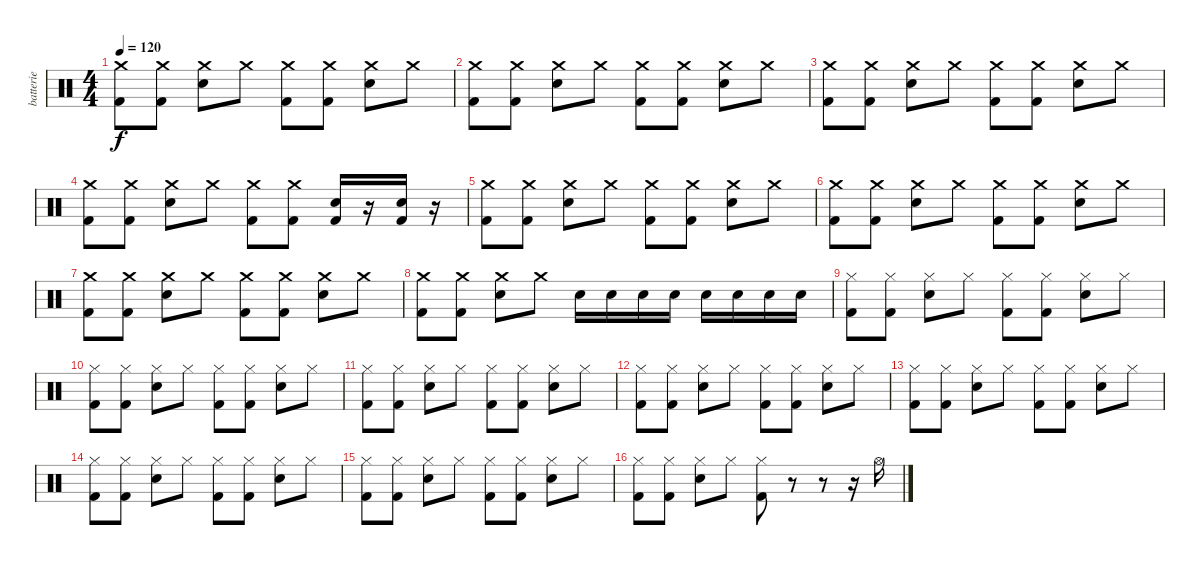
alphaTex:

\track ("batterie" "batterie") {instrument percussion}
\staff {score}
\articulation defaults
\ts (4 4)
\tempo 120
\clef neutral
\ks c
("Crash medium (hit)" "Kick (hit) 2").8{dy f} ("Crash medium (hit)" "Kick (hit) 2").8 ("Crash medium (hit)" "Electric Snare (hit)").8 "Crash medium (hit)".8 ("Crash medium (hit)" "Kick (hit) 2").8 ("Crash medium (hit)" "Kick (hit) 2").8 ("Crash medium (hit)" "Electric Snare (hit)").8 "Crash medium (hit)".8 |
("Crash medium (hit)" "Kick (hit) 2").8 ("Crash medium (hit)" "Kick (hit) 2").8 ("Crash medium (hit)" "Electric Snare (hit)").8 "Crash medium (hit)".8 ("Crash medium (hit)" "Kick (hit) 2").8 ("Crash medium (hit)" "Kick (hit) 2").8 ("Crash medium (hit)" "Electric Snare (hit)").8 "Crash medium (hit)".8 |
("Crash medium (hit)" "Kick (hit) 2").8 ("Crash medium (hit)" "Kick (hit) 2").8 ("Crash medium (hit)" "Electric Snare (hit)").8 "Crash medium (hit)".8 ("Crash medium (hit)" "Kick (hit) 2").8 ("Crash medium (hit)" "Kick (hit) 2").8 ("Crash medium (hit)" "Electric Snare (hit)").8 "Crash medium (hit)".8 |
("Crash medium (hit)" "Kick (hit) 2").8 ("Crash medium (hit)" "Kick (hit) 2").8 ("Crash medium (hit)" "Electric Snare (hit)").8 "Crash medium (hit)".8 ("Crash medium (hit)" "Kick (hit) 2").8 ("Crash medium (hit)" "Kick (hit) 2").8 ("Kick (hit) 2" "Electric Snare (hit)").16 r.16 ("Kick (hit) 2" "Electric Snare (hit)").16 r.16 |
("Crash medium (hit)" "Kick (hit) 2").8 ("Crash medium (hit)" "Kick (hit) 2").8 ("Crash medium (hit)" "Electric Snare (hit)").8 "Crash medium (hit)".8 ("Crash medium (hit)" "Kick (hit) 2").8 ("Crash medium (hit)" "Kick (hit) 2").8 ("Crash medium (hit)" "Electric Snare (hit)").8 "Crash medium (hit)".8 |
("Crash medium (hit)" "Kick (hit) 2").8 ("Crash medium (hit)" "Kick (hit) 2").8 ("Crash medium (hit)" "Electric Snare (hit)").8 "Crash medium (hit)".8 ("Crash medium (hit)" "Kick (hit) 2").8 ("Crash medium (hit)" "Kick (hit) 2").8 ("Crash medium (hit)" "Electric Snare (hit)").8 "Crash medium (hit)".8 |
("Crash medium (hit)" "Kick (hit) 2").8 ("Crash medium (hit)" "Kick (hit) 2").8 ("Crash medium (hit)" "Electric Snare (hit)").8 "Crash medium (hit)".8 ("Crash medium (hit)" "Kick (hit) 2").8 ("Crash medium (hit)" "Kick (hit) 2").8 ("Crash medium (hit)" "Electric Snare (hit)").8 "Crash medium (hit)".8 |
("Crash medium (hit)" "Kick (hit) 2").8 ("Crash medium (hit)" "Kick (hit) 2").8 ("Crash medium (hit)" "Electric Snare (hit)").8 "Crash medium (hit)".8 "Electric Snare (hit)".16 "Electric Snare (hit)".16 "Electric Snare (hit)".16 "Electric Snare (hit)".16 "Electric Snare (hit)".16 "Electric Snare (hit)".16 "Electric Snare (hit)".16 "Electric Snare (hit)".16 |
("Hi-Hat (closed)" "Kick (hit) 2").8 ("Hi-Hat (closed)" "Kick (hit) 2").8 ("Hi-Hat (closed)" "Electric Snare (hit)").8 "Hi-Hat (closed)".8 ("Hi-Hat (closed)" "Kick (hit) 2").8 ("Hi-Hat (closed)" "Kick (hit) 2").8 ("Hi-Hat (closed)" "Electric Snare (hit)").8 "Hi-Hat (closed)".8 |
("Hi-Hat (closed)" "Kick (hit) 2").8 ("Hi-Hat (closed)" "Kick (hit) 2").8 ("Hi-Hat (closed)" "Electric Snare (hit)").8 "Hi-Hat (closed)".8 ("Hi-Hat (closed)" "Kick (hit) 2").8 ("Hi-Hat (closed)" "Kick (hit) 2").8 ("Hi-Hat (closed)" "Electric Snare (hit)").8 "Hi-Hat (closed)".8 |
("Hi-Hat (closed)" "Kick (hit) 2").8 ("Hi-Hat (closed)" "Kick (hit) 2").8 ("Hi-Hat (closed)" "Electric Snare (hit)").8 "Hi-Hat (closed)".8 ("Hi-Hat (closed)" "Kick (hit) 2").8 ("Hi-Hat (closed)" "Kick (hit) 2").8 ("Hi-Hat (closed)" "Electric Snare (hit)").8 "Hi-Hat (closed)".8 |
("Hi-Hat (closed)" "Kick (hit) 2").8 ("Hi-Hat (closed)" "Kick (hit) 2").8 ("Hi-Hat (closed)" "Electric Snare (hit)").8 "Hi-Hat (closed)".8 ("Hi-Hat (closed)" "Kick (hit) 2").8 ("Hi-Hat (closed)" "Kick (hit) 2").8 ("Hi-Hat (closed)" "Electric Snare (hit)").8 "Hi-Hat (closed)".8 |
("Hi-Hat (closed)" "Kick (hit) 2").8 ("Hi-Hat (closed)" "Kick (hit) 2").8 ("Hi-Hat (closed)" "Electric Snare (hit)").8 "Hi-Hat (closed)".8 ("Hi-Hat (closed)" "Kick (hit) 2").8 ("Hi-Hat (closed)" "Kick (hit) 2").8 ("Hi-Hat (closed)" "Electric Snare (hit)").8 "Hi-Hat (closed)".8 |
("Hi-Hat (closed)" "Kick (hit) 2").8 ("Hi-Hat (closed)" "Kick (hit) 2").8 ("Hi-Hat (closed)" "Electric Snare (hit)").8 "Hi-Hat (closed)".8 ("Hi-Hat (closed)" "Kick (hit) 2").8 ("Hi-Hat (closed)" "Kick (hit) 2").8 ("Hi-Hat (closed)" "Electric Snare (hit)").8 "Hi-Hat (closed)".8 |
("Hi-Hat (closed)" "Kick (hit) 2").8 ("Hi-Hat (closed)" "Kick (hit) 2").8 ("Hi-Hat (closed)" "Electric Snare (hit)").8 "Hi-Hat (closed)".8 ("Hi-Hat (closed)" "Kick (hit) 2").8 ("Hi-Hat (closed)" "Kick (hit) 2").8 ("Hi-Hat (closed)" "Electric Snare (hit)").8 "Hi-Hat (closed)".8 |
("Hi-Hat (closed)" "Kick (hit) 2").8 ("Hi-Hat (closed)" "Kick (hit) 2").8 ("Hi-Hat (closed)" "Electric Snare (hit)").8 "Hi-Hat (closed)".8 ("Hi-Hat (closed)" "Kick (hit) 2").8 r.8 r.8 r.16 "Hi-Hat (open)".16
